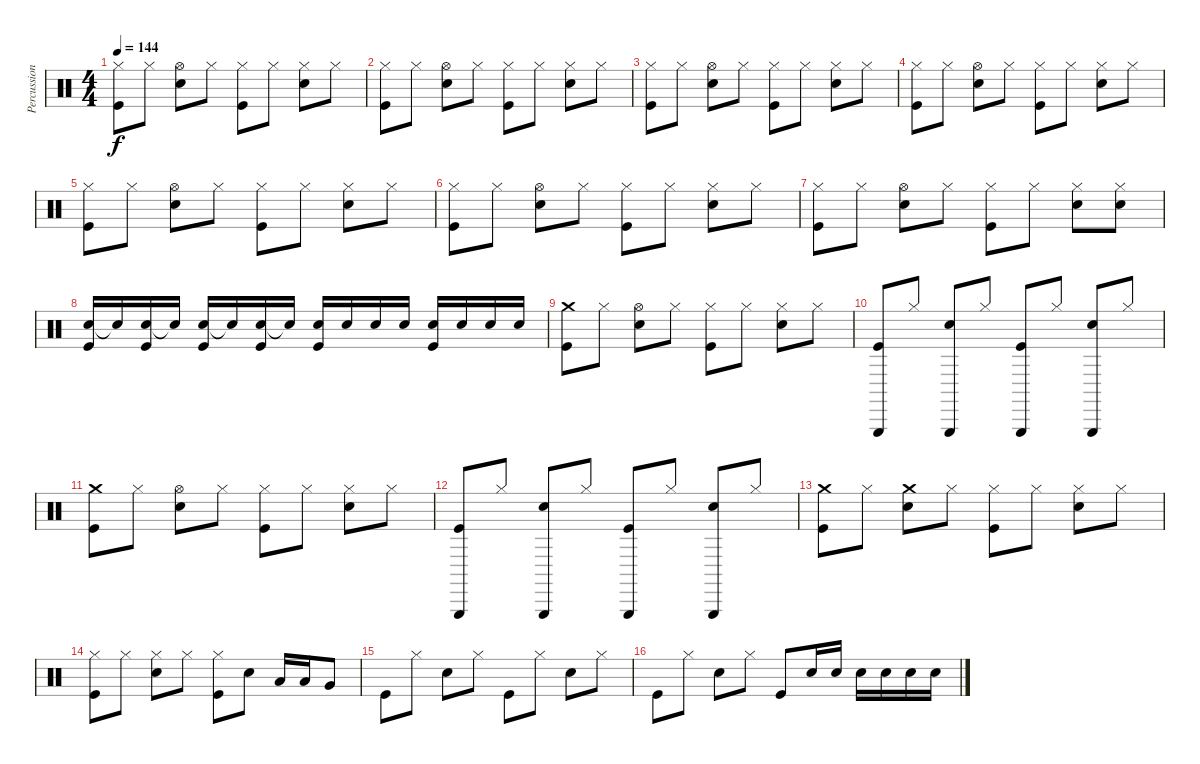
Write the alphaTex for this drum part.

\track ("Percussion" "Percussion") {instrument percussion}
\staff {score}
\articulation defaults
\ts (4 4)
\tempo 144
\clef neutral
\ks c
("Hi-Hat (closed)" "Kick (hit)").8{dy f} "Hi-Hat (closed)".8 ("Hi-Hat (open)" "Snare (hit) 2").8 "Hi-Hat (closed)".8 ("Hi-Hat (closed)" "Kick (hit)").8 "Hi-Hat (closed)".8 ("Hi-Hat (closed)" "Snare (hit) 2").8 "Hi-Hat (closed)".8 |
("Hi-Hat (closed)" "Kick (hit)").8 "Hi-Hat (closed)".8 ("Hi-Hat (open)" "Snare (hit) 2").8 "Hi-Hat (closed)".8 ("Hi-Hat (closed)" "Kick (hit)").8 "Hi-Hat (closed)".8 ("Hi-Hat (closed)" "Snare (hit) 2").8 "Hi-Hat (closed)".8 |
("Hi-Hat (closed)" "Kick (hit)").8 "Hi-Hat (closed)".8 ("Hi-Hat (open)" "Snare (hit) 2").8 "Hi-Hat (closed)".8 ("Hi-Hat (closed)" "Kick (hit)").8 "Hi-Hat (closed)".8 ("Hi-Hat (closed)" "Snare (hit) 2").8 "Hi-Hat (closed)".8 |
("Hi-Hat (closed)" "Kick (hit)").8 "Hi-Hat (closed)".8 ("Hi-Hat (open)" "Snare (hit) 2").8 "Hi-Hat (closed)".8 ("Hi-Hat (closed)" "Kick (hit)").8 "Hi-Hat (closed)".8 ("Hi-Hat (closed)" "Snare (hit) 2").8 "Hi-Hat (closed)".8 |
("Hi-Hat (closed)" "Kick (hit)").8 "Hi-Hat (closed)".8 ("Hi-Hat (open)" "Snare (hit) 2").8 "Hi-Hat (closed)".8 ("Hi-Hat (closed)" "Kick (hit)").8 "Hi-Hat (closed)".8 ("Hi-Hat (closed)" "Snare (hit) 2").8 "Hi-Hat (closed)".8 |
("Hi-Hat (closed)" "Kick (hit)").8 "Hi-Hat (closed)".8 ("Hi-Hat (open)" "Snare (hit) 2").8 "Hi-Hat (closed)".8 ("Hi-Hat (closed)" "Kick (hit)").8 "Hi-Hat (closed)".8 ("Hi-Hat (closed)" "Snare (hit) 2").8 "Hi-Hat (closed)".8 |
("Hi-Hat (closed)" "Kick (hit)").8 "Hi-Hat (closed)".8 ("Hi-Hat (open)" "Snare (hit) 2").8 "Hi-Hat (closed)".8 ("Hi-Hat (closed)" "Kick (hit)").8 "Hi-Hat (closed)".8 ("Hi-Hat (closed)" "Snare (hit) 2").8 ("Hi-Hat (closed)" "Snare (hit) 2").8 |
("Snare (hit) 2" "Kick (hit)").16 "Snare (hit) 2"{t}.16 ("Snare (hit) 2" "Kick (hit)").16 "Snare (hit) 2"{t}.16 ("Snare (hit) 2" "Kick (hit)").16 "Snare (hit) 2"{t}.16 ("Snare (hit) 2" "Kick (hit)").16 "Snare (hit) 2"{t}.16 ("Snare (hit) 2" "Kick (hit)").16 "Snare (hit) 2".16 "Snare (hit) 2".16 "Snare (hit) 2".16 ("Snare (hit) 2" "Kick (hit)").16 "Snare (hit) 2".16 "Snare (hit) 2".16 "Snare (hit) 2".16 |
("Crash medium (hit)" "Kick (hit)").8 "Hi-Hat (closed)".8 ("Hi-Hat (open)" "Snare (hit) 2").8 "Hi-Hat (closed)".8 ("Hi-Hat (closed)" "Kick (hit)").8 "Hi-Hat (closed)".8 ("Hi-Hat (closed)" "Snare (hit) 2").8 "Hi-Hat (closed)".8 |
("Triangle (hit)" "Kick (hit)").8 "Hi-Hat (closed)".8 ("Triangle (hit)" "Snare (hit) 2").8 "Hi-Hat (closed)".8 ("Triangle (hit)" "Kick (hit)").8 "Hi-Hat (closed)".8 ("Triangle (hit)" "Snare (hit) 2").8 "Hi-Hat (closed)".8 |
("Crash medium (hit)" "Kick (hit)").8 "Hi-Hat (closed)".8 ("Hi-Hat (open)" "Snare (hit) 2").8 "Hi-Hat (closed)".8 ("Hi-Hat (closed)" "Kick (hit)").8 "Hi-Hat (closed)".8 ("Hi-Hat (closed)" "Snare (hit) 2").8 "Hi-Hat (closed)".8 |
("Triangle (hit)" "Kick (hit)").8 "Hi-Hat (closed)".8 ("Triangle (hit)" "Snare (hit) 2").8 "Hi-Hat (closed)".8 ("Triangle (hit)" "Kick (hit)").8 "Hi-Hat (closed)".8 ("Triangle (hit)" "Snare (hit) 2").8 "Hi-Hat (closed)".8 |
("Crash medium (hit)" "Kick (hit)").8 "Hi-Hat (closed)".8 ("Crash medium (hit)" "Snare (hit) 2").8 "Hi-Hat (closed)".8 ("Hi-Hat (closed)" "Kick (hit)").8 "Hi-Hat (closed)".8 ("Hi-Hat (closed)" "Snare (hit) 2").8 "Hi-Hat (closed)".8 |
("Hi-Hat (closed)" "Kick (hit)").8 "Hi-Hat (closed)".8 ("Hi-Hat (closed)" "Snare (hit) 2").8 "Hi-Hat (closed)".8 ("Hi-Hat (closed)" "Kick (hit)").8 "Snare (hit) 2".8 "Low Floor Tom (hit)".16 "Low Floor Tom (hit)".16 "Very Low Tom (hit)".8 |
"Kick (hit)".8 "Hi-Hat (closed)".8 "Snare (hit) 2".8 "Hi-Hat (closed)".8 "Kick (hit)".8 "Hi-Hat (closed)".8 "Snare (hit) 2".8 "Hi-Hat (closed)".8 |
"Kick (hit)".8 "Hi-Hat (closed)".8 "Snare (hit) 2".8 "Hi-Hat (closed)".8 "Kick (hit)".8 "Snare (hit) 2".16 "Snare (hit) 2".16 "Snare (hit) 2".16 "Snare (hit) 2".16 "Snare (hit) 2".16 "Snare (hit) 2".16
